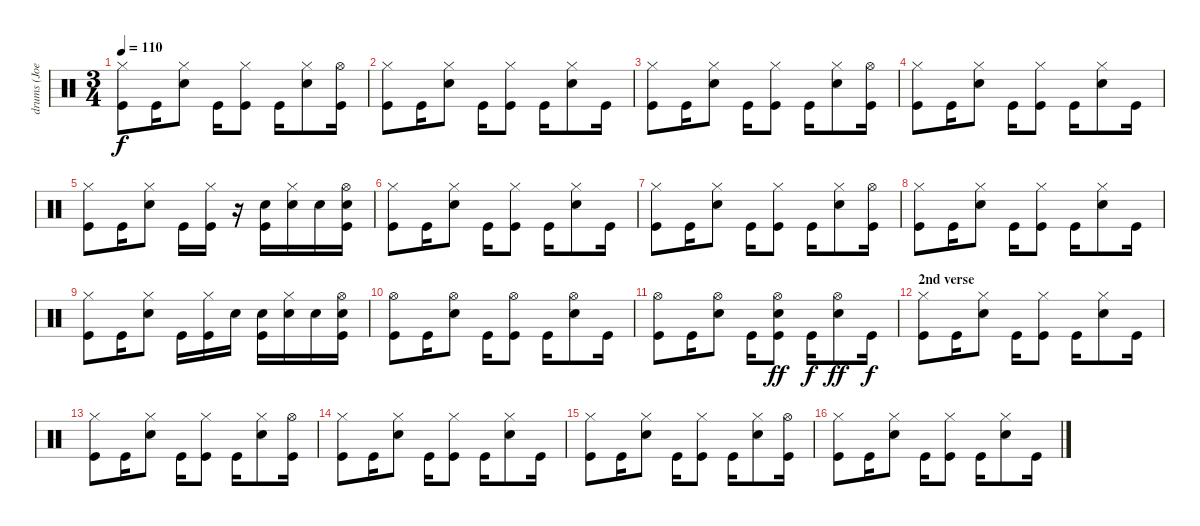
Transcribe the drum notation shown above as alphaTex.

\track ("drums (Joey Castillo)" "drums (Joe") {instrument percussion}
\staff {score}
\articulation defaults
\ts (3 4)
\tempo 110
\clef neutral
\ks c
("Kick (hit)" "Hi-Hat (closed)").8{dy f} "Kick (hit)".16 ("Electric Snare (hit)" "Hi-Hat (closed)").8 "Kick (hit)".16 ("Kick (hit)" "Hi-Hat (closed)").8 "Kick (hit)".16 ("Electric Snare (hit)" "Hi-Hat (closed)").8 ("Kick (hit)" "Hi-Hat (open)").16 |
("Kick (hit)" "Hi-Hat (closed)").8 "Kick (hit)".16 ("Electric Snare (hit)" "Hi-Hat (closed)").8 "Kick (hit)".16 ("Kick (hit)" "Hi-Hat (closed)").8 "Kick (hit)".16 ("Electric Snare (hit)" "Hi-Hat (closed)").8 "Kick (hit)".16 |
("Kick (hit)" "Hi-Hat (closed)").8 "Kick (hit)".16 ("Electric Snare (hit)" "Hi-Hat (closed)").8 "Kick (hit)".16 ("Kick (hit)" "Hi-Hat (closed)").8 "Kick (hit)".16 ("Electric Snare (hit)" "Hi-Hat (closed)").8 ("Kick (hit)" "Hi-Hat (open)").16 |
("Kick (hit)" "Hi-Hat (closed)").8 "Kick (hit)".16 ("Electric Snare (hit)" "Hi-Hat (closed)").8 "Kick (hit)".16 ("Kick (hit)" "Hi-Hat (closed)").8 "Kick (hit)".16 ("Electric Snare (hit)" "Hi-Hat (closed)").8 "Kick (hit)".16 |
("Kick (hit)" "Hi-Hat (closed)").8 "Kick (hit)".16 ("Electric Snare (hit)" "Hi-Hat (closed)").8 "Kick (hit)".16 ("Kick (hit)" "Hi-Hat (closed)").16 r.16 ("Kick (hit)" "Electric Snare (hit)").16 ("Electric Snare (hit)" "Hi-Hat (closed)").16 "Electric Snare (hit)".16 ("Kick (hit)" "Electric Snare (hit)" "Hi-Hat (open)").16 |
("Kick (hit)" "Hi-Hat (closed)").8 "Kick (hit)".16 ("Electric Snare (hit)" "Hi-Hat (closed)").8 "Kick (hit)".16 ("Kick (hit)" "Hi-Hat (closed)").8 "Kick (hit)".16 ("Electric Snare (hit)" "Hi-Hat (closed)").8 "Kick (hit)".16 |
("Kick (hit)" "Hi-Hat (closed)").8 "Kick (hit)".16 ("Electric Snare (hit)" "Hi-Hat (closed)").8 "Kick (hit)".16 ("Kick (hit)" "Hi-Hat (closed)").8 "Kick (hit)".16 ("Electric Snare (hit)" "Hi-Hat (closed)").8 ("Kick (hit)" "Hi-Hat (open)").16 |
("Kick (hit)" "Hi-Hat (closed)").8 "Kick (hit)".16 ("Electric Snare (hit)" "Hi-Hat (closed)").8 "Kick (hit)".16 ("Kick (hit)" "Hi-Hat (closed)").8 "Kick (hit)".16 ("Electric Snare (hit)" "Hi-Hat (closed)").8 "Kick (hit)".16 |
("Kick (hit)" "Hi-Hat (closed)").8 "Kick (hit)".16 ("Electric Snare (hit)" "Hi-Hat (closed)").8 "Kick (hit)".16 ("Kick (hit)" "Hi-Hat (closed)").16 "Electric Snare (hit)".16 ("Kick (hit)" "Electric Snare (hit)").16 ("Electric Snare (hit)" "Hi-Hat (closed)").16 "Electric Snare (hit)".16 ("Kick (hit)" "Electric Snare (hit)" "Hi-Hat (open)").16 |
("Kick (hit)" "Hi-Hat (open)").8 "Kick (hit)".16 ("Electric Snare (hit)" "Hi-Hat (open)").8 "Kick (hit)".16 ("Kick (hit)" "Hi-Hat (open)").8 "Kick (hit)".16 ("Electric Snare (hit)" "Hi-Hat (open)").8 "Kick (hit)".16 |
("Kick (hit)" "Hi-Hat (open)").8 "Kick (hit)".16 ("Electric Snare (hit)" "Hi-Hat (open)").8 "Kick (hit)".16 ("Kick (hit)" "Electric Snare (hit)" "Hi-Hat (open)").8{dy ff} "Kick (hit)".16{dy f} ("Electric Snare (hit)" "Hi-Hat (open)").8{dy ff} "Kick (hit)".16{dy f} |
\section ("" "2nd verse")
("Kick (hit)" "Hi-Hat (closed)").8 "Kick (hit)".16 ("Electric Snare (hit)" "Hi-Hat (closed)").8 "Kick (hit)".16 ("Kick (hit)" "Hi-Hat (closed)").8 "Kick (hit)".16 ("Electric Snare (hit)" "Hi-Hat (closed)").8 "Kick (hit)".16 |
("Kick (hit)" "Hi-Hat (closed)").8 "Kick (hit)".16 ("Electric Snare (hit)" "Hi-Hat (closed)").8 "Kick (hit)".16 ("Kick (hit)" "Hi-Hat (closed)").8 "Kick (hit)".16 ("Electric Snare (hit)" "Hi-Hat (closed)").8 ("Kick (hit)" "Hi-Hat (open)").16 |
("Kick (hit)" "Hi-Hat (closed)").8 "Kick (hit)".16 ("Electric Snare (hit)" "Hi-Hat (closed)").8 "Kick (hit)".16 ("Kick (hit)" "Hi-Hat (closed)").8 "Kick (hit)".16 ("Electric Snare (hit)" "Hi-Hat (closed)").8 "Kick (hit)".16 |
("Kick (hit)" "Hi-Hat (closed)").8 "Kick (hit)".16 ("Electric Snare (hit)" "Hi-Hat (closed)").8 "Kick (hit)".16 ("Kick (hit)" "Hi-Hat (closed)").8 "Kick (hit)".16 ("Electric Snare (hit)" "Hi-Hat (closed)").8 ("Kick (hit)" "Hi-Hat (open)").16 |
("Kick (hit)" "Hi-Hat (closed)").8 "Kick (hit)".16 ("Electric Snare (hit)" "Hi-Hat (closed)").8 "Kick (hit)".16 ("Kick (hit)" "Hi-Hat (closed)").8 "Kick (hit)".16 ("Electric Snare (hit)" "Hi-Hat (closed)").8 "Kick (hit)".16
